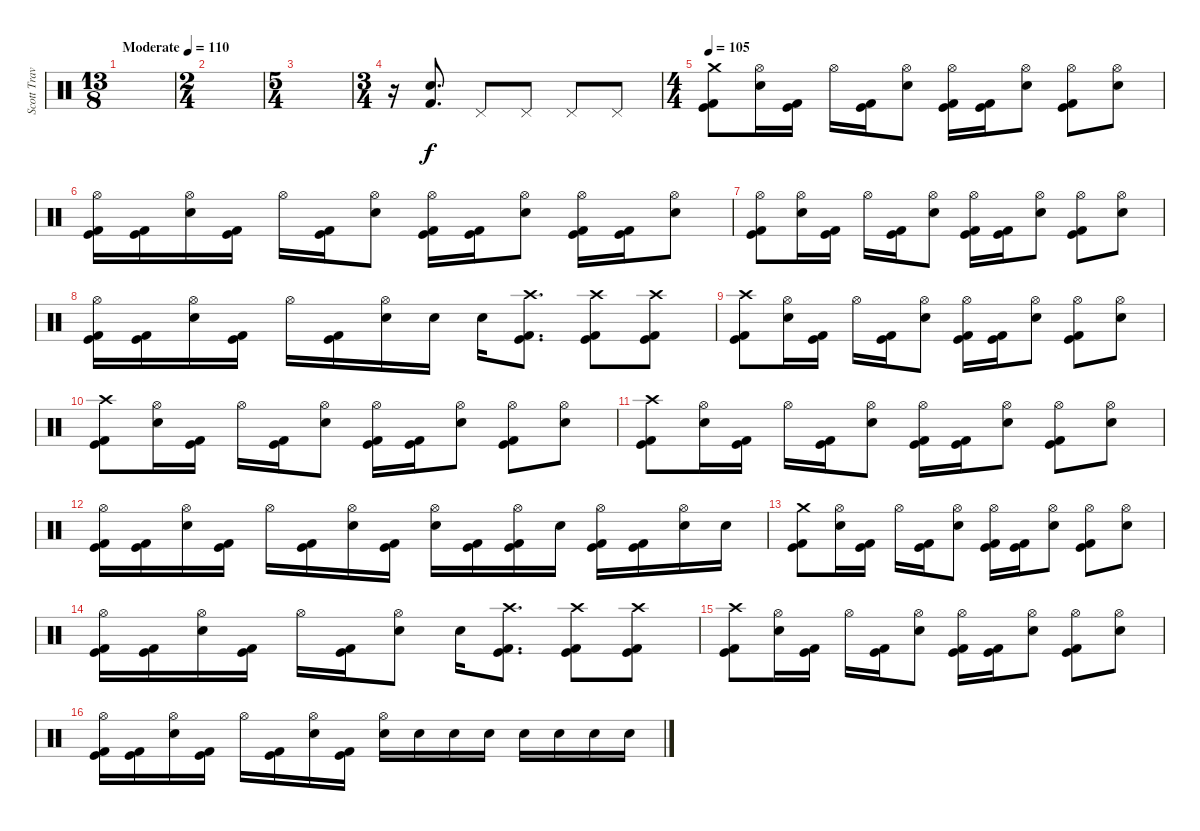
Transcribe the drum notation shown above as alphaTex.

\track ("Scott Travis" "Scott Trav") {instrument percussion}
\staff {score}
\articulation defaults
\ts (13 8)
\tempo (110 "Moderate")
\clef neutral
\ks c
|
\ts (2 4)
|
\ts (5 4)
|
\ts (3 4)
r.16 ("Snare (hit) 2" "Kick (hit) 2").8{d} "Pedal Hi-Hat (hit)".8 "Pedal Hi-Hat (hit)".8 "Pedal Hi-Hat (hit)".8 "Pedal Hi-Hat (hit)".8 |
\ts (4 4)
\tempo 105
("Crash medium (hit)" "Kick (hit) 2" "Kick (hit)").8 ("Hi-Hat (open)" "Snare (hit) 2").16 ("Kick (hit) 2" "Kick (hit)").16 "Hi-Hat (open)".16 ("Kick (hit) 2" "Kick (hit)").16 ("Hi-Hat (open)" "Snare (hit) 2").8 ("Hi-Hat (open)" "Kick (hit) 2" "Kick (hit)").16 ("Kick (hit) 2" "Kick (hit)").16 ("Hi-Hat (open)" "Snare (hit) 2").8 ("Hi-Hat (open)" "Kick (hit) 2" "Kick (hit)").8 ("Hi-Hat (open)" "Snare (hit) 2").8 |
("Hi-Hat (open)" "Kick (hit) 2" "Kick (hit)").16 ("Kick (hit) 2" "Kick (hit)").16 ("Hi-Hat (open)" "Snare (hit) 2").16 ("Kick (hit) 2" "Kick (hit)").16 "Hi-Hat (open)".16 ("Kick (hit) 2" "Kick (hit)").16 ("Hi-Hat (open)" "Snare (hit) 2").8 ("Hi-Hat (open)" "Kick (hit) 2" "Kick (hit)").16 ("Kick (hit) 2" "Kick (hit)").16 ("Hi-Hat (open)" "Snare (hit) 2").8 ("Hi-Hat (open)" "Kick (hit) 2" "Kick (hit)").16 ("Kick (hit) 2" "Kick (hit)").16 ("Hi-Hat (open)" "Snare (hit) 2").8 |
("Hi-Hat (open)" "Kick (hit) 2" "Kick (hit)").8 ("Hi-Hat (open)" "Snare (hit) 2").16 ("Kick (hit) 2" "Kick (hit)").16 "Hi-Hat (open)".16 ("Kick (hit) 2" "Kick (hit)").16 ("Hi-Hat (open)" "Snare (hit) 2").8 ("Hi-Hat (open)" "Kick (hit) 2" "Kick (hit)").16 ("Kick (hit) 2" "Kick (hit)").16 ("Hi-Hat (open)" "Snare (hit) 2").8 ("Hi-Hat (open)" "Kick (hit) 2" "Kick (hit)").8 ("Hi-Hat (open)" "Snare (hit) 2").8 |
("Hi-Hat (open)" "Kick (hit) 2" "Kick (hit)").16 ("Kick (hit) 2" "Kick (hit)").16 ("Hi-Hat (open)" "Snare (hit) 2").16 ("Kick (hit) 2" "Kick (hit)").16 "Hi-Hat (open)".16 ("Kick (hit) 2" "Kick (hit)").16 ("Hi-Hat (open)" "Snare (hit) 2").16 "Snare (hit) 2".16 "Snare (hit) 2".16 ("Crash high (hit)" "Kick (hit)" "Kick (hit) 2").8{d} ("Crash high (hit)" "Kick (hit) 2" "Kick (hit)").8 ("Crash high (hit)" "Kick (hit)" "Kick (hit) 2").8 |
("Crash high (hit)" "Kick (hit) 2" "Kick (hit)").8 ("Hi-Hat (open)" "Snare (hit) 2").16 ("Kick (hit) 2" "Kick (hit)").16 "Hi-Hat (open)".16 ("Kick (hit) 2" "Kick (hit)").16 ("Hi-Hat (open)" "Snare (hit) 2").8 ("Hi-Hat (open)" "Kick (hit) 2" "Kick (hit)").16 ("Kick (hit) 2" "Kick (hit)").16 ("Hi-Hat (open)" "Snare (hit) 2").8 ("Hi-Hat (open)" "Kick (hit) 2" "Kick (hit)").8 ("Hi-Hat (open)" "Snare (hit) 2").8 |
("Crash high (hit)" "Kick (hit) 2" "Kick (hit)").8 ("Hi-Hat (open)" "Snare (hit) 2").16 ("Kick (hit) 2" "Kick (hit)").16 "Hi-Hat (open)".16 ("Kick (hit) 2" "Kick (hit)").16 ("Hi-Hat (open)" "Snare (hit) 2").8 ("Hi-Hat (open)" "Kick (hit) 2" "Kick (hit)").16 ("Kick (hit) 2" "Kick (hit)").16 ("Hi-Hat (open)" "Snare (hit) 2").8 ("Hi-Hat (open)" "Kick (hit) 2" "Kick (hit)").8 ("Hi-Hat (open)" "Snare (hit) 2").8 |
("Crash high (hit)" "Kick (hit) 2" "Kick (hit)").8 ("Hi-Hat (open)" "Snare (hit) 2").16 ("Kick (hit) 2" "Kick (hit)").16 "Hi-Hat (open)".16 ("Kick (hit) 2" "Kick (hit)").16 ("Hi-Hat (open)" "Snare (hit) 2").8 ("Hi-Hat (open)" "Kick (hit) 2" "Kick (hit)").16 ("Kick (hit) 2" "Kick (hit)").16 ("Hi-Hat (open)" "Snare (hit) 2").8 ("Hi-Hat (open)" "Kick (hit) 2" "Kick (hit)").8 ("Hi-Hat (open)" "Snare (hit) 2").8 |
("Hi-Hat (open)" "Kick (hit) 2" "Kick (hit)").16 ("Kick (hit) 2" "Kick (hit)").16 ("Hi-Hat (open)" "Snare (hit) 2").16 ("Kick (hit) 2" "Kick (hit)").16 "Hi-Hat (open)".16 ("Kick (hit) 2" "Kick (hit)").16 ("Hi-Hat (open)" "Snare (hit) 2").16 ("Kick (hit)" "Kick (hit) 2").16 ("Hi-Hat (open)" "Snare (hit) 2").16 ("Kick (hit) 2" "Kick (hit)").16 ("Hi-Hat (open)" "Kick (hit) 2" "Kick (hit)").16 "Snare (hit) 2".16 ("Hi-Hat (open)" "Kick (hit) 2" "Kick (hit)").16 ("Kick (hit) 2" "Kick (hit)").16 ("Hi-Hat (open)" "Snare (hit) 2").16 "Snare (hit) 2".16 |
("Crash medium (hit)" "Kick (hit) 2" "Kick (hit)").8 ("Hi-Hat (open)" "Snare (hit) 2").16 ("Kick (hit) 2" "Kick (hit)").16 "Hi-Hat (open)".16 ("Kick (hit) 2" "Kick (hit)").16 ("Hi-Hat (open)" "Snare (hit) 2").8 ("Hi-Hat (open)" "Kick (hit) 2" "Kick (hit)").16 ("Kick (hit) 2" "Kick (hit)").16 ("Hi-Hat (open)" "Snare (hit) 2").8 ("Hi-Hat (open)" "Kick (hit) 2" "Kick (hit)").8 ("Hi-Hat (open)" "Snare (hit) 2").8 |
("Hi-Hat (open)" "Kick (hit) 2" "Kick (hit)").16 ("Kick (hit) 2" "Kick (hit)").16 ("Hi-Hat (open)" "Snare (hit) 2").16 ("Kick (hit) 2" "Kick (hit)").16 "Hi-Hat (open)".16 ("Kick (hit) 2" "Kick (hit)").16 ("Hi-Hat (open)" "Snare (hit) 2").8 "Snare (hit) 2".16 ("Crash high (hit)" "Kick (hit)" "Kick (hit) 2").8{d} ("Crash high (hit)" "Kick (hit) 2" "Kick (hit)").8 ("Crash high (hit)" "Kick (hit)" "Kick (hit) 2").8 |
("Crash high (hit)" "Kick (hit) 2" "Kick (hit)").8 ("Hi-Hat (open)" "Snare (hit) 2").16 ("Kick (hit) 2" "Kick (hit)").16 "Hi-Hat (open)".16 ("Kick (hit) 2" "Kick (hit)").16 ("Hi-Hat (open)" "Snare (hit) 2").8 ("Hi-Hat (open)" "Kick (hit) 2" "Kick (hit)").16 ("Kick (hit) 2" "Kick (hit)").16 ("Hi-Hat (open)" "Snare (hit) 2").8 ("Hi-Hat (open)" "Kick (hit) 2" "Kick (hit)").8 ("Hi-Hat (open)" "Snare (hit) 2").8 |
("Hi-Hat (open)" "Kick (hit) 2" "Kick (hit)").16 ("Kick (hit) 2" "Kick (hit)").16 ("Hi-Hat (open)" "Snare (hit) 2").16 ("Kick (hit) 2" "Kick (hit)").16 "Hi-Hat (open)".16 ("Kick (hit) 2" "Kick (hit)").16 ("Hi-Hat (open)" "Snare (hit) 2").16 ("Kick (hit)" "Kick (hit) 2").16 ("Hi-Hat (open)" "Snare (hit) 2").16 "Snare (hit) 2".16 "Snare (hit) 2".16 "Snare (hit) 2".16 "Snare (hit) 2".16 "Snare (hit) 2".16 "Snare (hit) 2".16 "Snare (hit) 2".16
